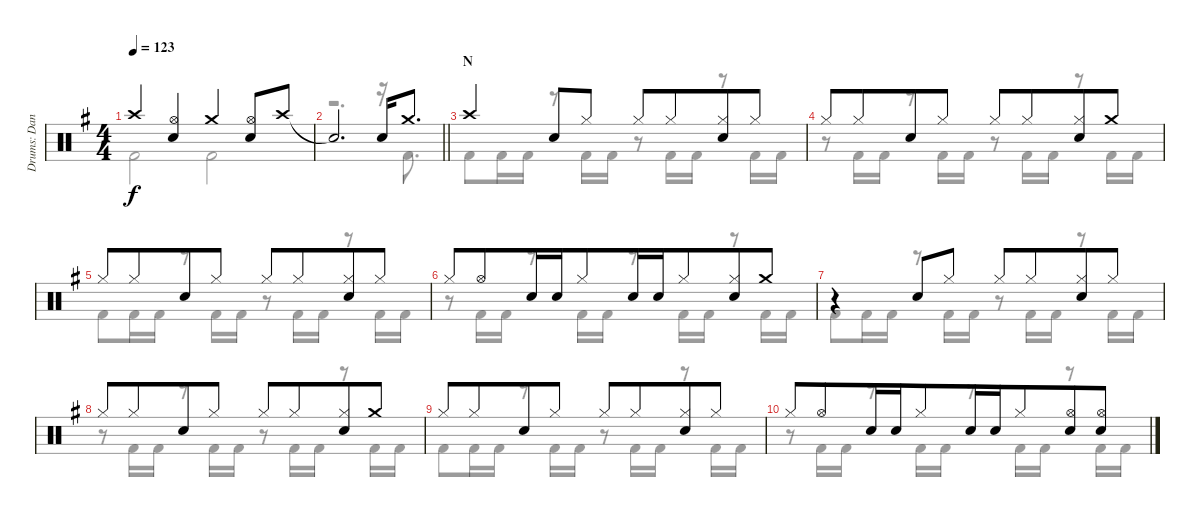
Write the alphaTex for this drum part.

\track ("Drums: Dana" "Drums: Dan") {instrument percussion}
\staff {score}
\articulation defaults
\voice
\ts (4 4)
\tempo 123
\clef neutral
\ks g "Crash high (hit)".4{dy f}
("Hi-Hat (open)" "Snare (hit) 2").4 "Crash medium (hit)".4 ("Hi-Hat (open)" "Snare (hit) 2").8 "Crash high (hit)".8 |
\barLineRight lightlight "Snare (hit)"{t}.2{d} "Snare (hit) 2".16 "Crash medium (hit)".8{d}
|
\section ("" "N")
"Crash high (hit)".4{beam merge} "Snare (hit) 2".8 "Hi-Hat (closed)".8 "Hi-Hat (closed)".8 "Hi-Hat (closed)".8{beam merge} ("Hi-Hat (closed)" "Snare (hit) 2").8 "Hi-Hat (closed)".8 |
"Hi-Hat (closed)".8 "Hi-Hat (closed)".8{beam merge} "Snare (hit) 2".8 "Hi-Hat (closed)".8 "Hi-Hat (closed)".8 "Hi-Hat (closed)".8{beam merge} ("Hi-Hat (closed)" "Snare (hit) 2").8 "Crash medium (hit)".8 |
"Hi-Hat (closed)".8 "Hi-Hat (closed)".8{beam merge} "Snare (hit) 2".8 "Hi-Hat (closed)".8 "Hi-Hat (closed)".8 "Hi-Hat (closed)".8{beam merge} ("Hi-Hat (closed)" "Snare (hit) 2").8 "Hi-Hat (closed)".8 |
"Hi-Hat (closed)".8 "Hi-Hat (open)".8{beam merge} "Snare (hit) 2".16{beam merge} "Snare (hit) 2".16 "Hi-Hat (closed)".8{beam merge} "Snare (hit) 2".16{beam merge} "Snare (hit) 2".16 "Hi-Hat (closed)".8{beam merge} ("Hi-Hat (closed)" "Snare (hit) 2").8 "Crash medium (hit)".8 |
r.4{beam merge} "Snare (hit) 2".8 "Hi-Hat (closed)".8 "Hi-Hat (closed)".8 "Hi-Hat (closed)".8{beam merge} ("Hi-Hat (closed)" "Snare (hit) 2").8 "Hi-Hat (closed)".8 |
"Hi-Hat (closed)".8 "Hi-Hat (closed)".8{beam merge} "Snare (hit) 2".8 "Hi-Hat (closed)".8 "Hi-Hat (closed)".8 "Hi-Hat (closed)".8{beam merge} ("Hi-Hat (closed)" "Snare (hit) 2").8 "Crash medium (hit)".8 |
"Hi-Hat (closed)".8 "Hi-Hat (closed)".8{beam merge} "Snare (hit) 2".8 "Hi-Hat (closed)".8 "Hi-Hat (closed)".8 "Hi-Hat (closed)".8{beam merge} ("Hi-Hat (closed)" "Snare (hit) 2").8 "Hi-Hat (closed)".8 |
"Hi-Hat (closed)".8 "Hi-Hat (open)".8{beam merge} "Snare (hit) 2".16{beam merge} "Snare (hit) 2".16 "Hi-Hat (closed)".8{beam merge} "Snare (hit) 2".16{beam merge} "Snare (hit) 2".16 "Hi-Hat (closed)".8{beam merge} ("Hi-Hat (open)" "Snare (hit) 2").8 ("Hi-Hat (open)" "Snare (hit) 2").8
\voice
\clef neutral
\ottava regular
\simile none
\ks g "Kick (hit) 2".2{dy f} "Kick (hit) 2".2
|
\barLineRight lightlight
r.2{d} r.16 "Kick (hit) 2".8{d} |
"Kick (hit) 2".8 "Kick (hit) 2".16 "Kick (hit) 2".16 r.8 "Kick (hit) 2".16 "Kick (hit) 2".16 r.8 "Kick (hit) 2".16 "Kick (hit) 2".16 r.8 "Kick (hit) 2".16 "Kick (hit) 2".16 |
r.8 "Kick (hit) 2".16 "Kick (hit) 2".16 r.8 "Kick (hit) 2".16 "Kick (hit) 2".16 r.8 "Kick (hit) 2".16 "Kick (hit) 2".16 r.8 "Kick (hit) 2".16 "Kick (hit) 2".16 |
"Kick (hit) 2".8 "Kick (hit) 2".16 "Kick (hit) 2".16 r.8 "Kick (hit) 2".16 "Kick (hit) 2".16 r.8 "Kick (hit) 2".16 "Kick (hit) 2".16 r.8 "Kick (hit) 2".16 "Kick (hit) 2".16 |
r.8 "Kick (hit) 2".16 "Kick (hit) 2".16 r.8 "Kick (hit) 2".16 "Kick (hit) 2".16 r.8 "Kick (hit) 2".16 "Kick (hit) 2".16 r.8 "Kick (hit) 2".16 "Kick (hit) 2".16 |
"Kick (hit) 2".8 "Kick (hit) 2".16 "Kick (hit) 2".16 r.8 "Kick (hit) 2".16 "Kick (hit) 2".16 r.8 "Kick (hit) 2".16 "Kick (hit) 2".16 r.8 "Kick (hit) 2".16 "Kick (hit) 2".16 |
r.8 "Kick (hit) 2".16 "Kick (hit) 2".16 r.8 "Kick (hit) 2".16 "Kick (hit) 2".16 r.8 "Kick (hit) 2".16 "Kick (hit) 2".16 r.8 "Kick (hit) 2".16 "Kick (hit) 2".16 |
"Kick (hit) 2".8 "Kick (hit) 2".16 "Kick (hit) 2".16 r.8 "Kick (hit) 2".16 "Kick (hit) 2".16 r.8 "Kick (hit) 2".16 "Kick (hit) 2".16 r.8 "Kick (hit) 2".16 "Kick (hit) 2".16 |
r.8 "Kick (hit) 2".16 "Kick (hit) 2".16 r.8 "Kick (hit) 2".16 "Kick (hit) 2".16 r.8 "Kick (hit) 2".16 "Kick (hit) 2".16 r.8 "Kick (hit) 2".16 "Kick (hit) 2".16
